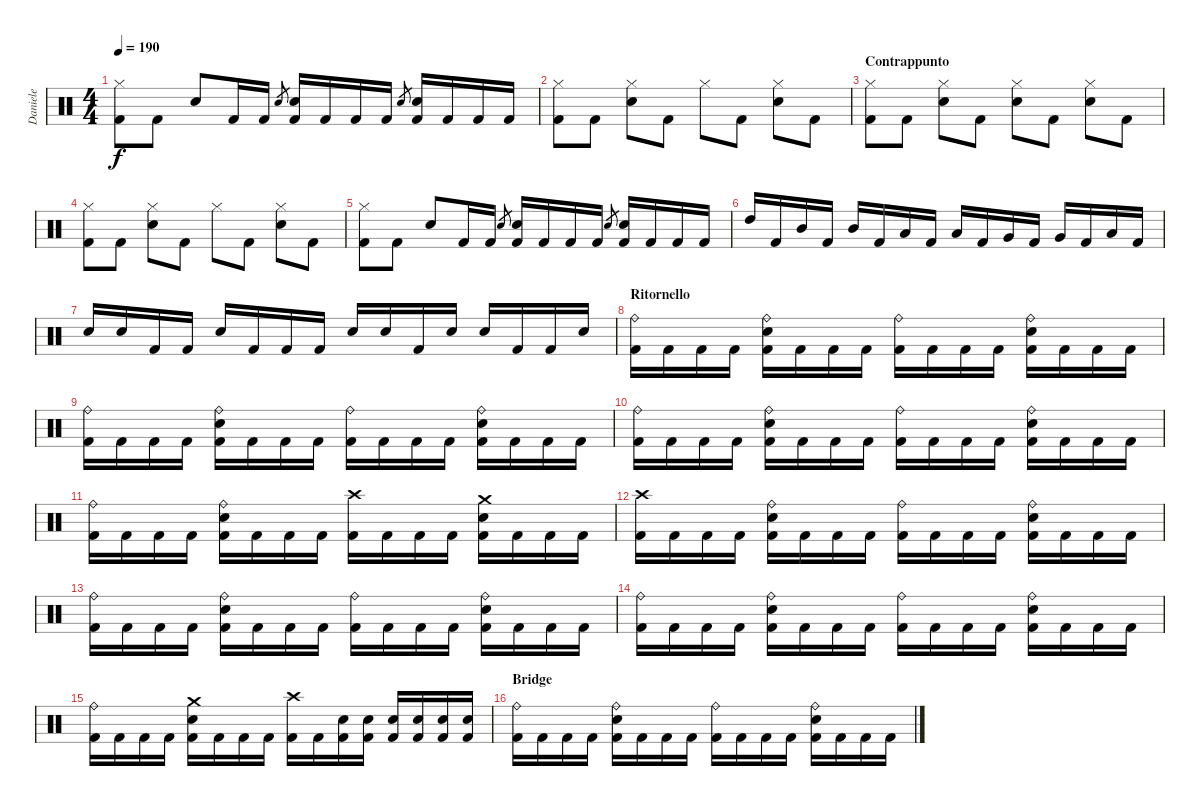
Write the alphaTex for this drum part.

\track ("Daniele" "Daniele") {instrument percussion}
\staff {score}
\articulation defaults
\ts (4 4)
\tempo 190
\clef neutral
\ks c
("Hi-Hat (closed)" "Kick (hit) 2").8{dy f} "Kick (hit) 2".8 "Electric Snare (hit)".8 "Kick (hit) 2".16 "Kick (hit) 2".16 "Electric Snare (hit)".8{gr} ("Electric Snare (hit)" "Kick (hit) 2").16 "Kick (hit) 2".16 "Kick (hit) 2".16 "Kick (hit) 2".16 "Electric Snare (hit)".8{gr} ("Electric Snare (hit)" "Kick (hit) 2").16 "Kick (hit) 2".16 "Kick (hit) 2".16 "Kick (hit) 2".16 |
("Hi-Hat (closed)" "Kick (hit) 2").8 "Kick (hit) 2".8 ("Hi-Hat (closed)" "Electric Snare (hit)").8 "Kick (hit) 2".8 "Hi-Hat (closed)".8 "Kick (hit) 2".8 ("Hi-Hat (closed)" "Electric Snare (hit)").8 "Kick (hit) 2".8 |
\section ("" "Contrappunto")
("Hi-Hat (closed)" "Kick (hit) 2").8 "Kick (hit) 2".8 ("Hi-Hat (closed)" "Electric Snare (hit)").8 "Kick (hit) 2".8 ("Hi-Hat (closed)" "Electric Snare (hit)").8 "Kick (hit) 2".8 ("Hi-Hat (closed)" "Electric Snare (hit)").8 "Kick (hit) 2".8 |
("Hi-Hat (closed)" "Kick (hit) 2").8 "Kick (hit) 2".8 ("Hi-Hat (closed)" "Electric Snare (hit)").8 "Kick (hit) 2".8 "Hi-Hat (closed)".8 "Kick (hit) 2".8 ("Hi-Hat (closed)" "Electric Snare (hit)").8 "Kick (hit) 2".8 |
("Hi-Hat (closed)" "Kick (hit) 2").8 "Kick (hit) 2".8 "Electric Snare (hit)".8 "Kick (hit) 2".16 "Kick (hit) 2".16 "Electric Snare (hit)".8{gr} ("Electric Snare (hit)" "Kick (hit) 2").16 "Kick (hit) 2".16 "Kick (hit) 2".16 "Kick (hit) 2".16 "Electric Snare (hit)".8{gr} ("Electric Snare (hit)" "Kick (hit) 2").16 "Kick (hit) 2".16 "Kick (hit) 2".16 "Kick (hit) 2".16 |
"High Tom (hit)".16 "Kick (hit) 2".16 "Mid Tom (hit)".16 "Kick (hit) 2".16 "Mid Tom (hit)".16 "Kick (hit) 2".16 "Low Tom (hit)".16 "Kick (hit) 2".16 "Low Tom (hit)".16 "Kick (hit) 2".16 "Very Low Tom (hit)".16 "Kick (hit) 2".16 "Very Low Tom (hit)".16 "Kick (hit) 2".16 "Low Floor Tom (hit)".16 "Kick (hit) 2".16 |
"Electric Snare (hit)".16 "Electric Snare (hit)".16 "Kick (hit) 2".16 "Kick (hit) 2".16 "Electric Snare (hit)".16 "Kick (hit) 2".16 "Kick (hit) 2".16 "Kick (hit) 2".16 "Electric Snare (hit)".16 "Electric Snare (hit)".16 "Kick (hit) 2".16 "Electric Snare (hit)".16 "Electric Snare (hit)".16 "Kick (hit) 2".16 "Kick (hit) 2".16 "Electric Snare (hit)".16 |
\section ("" "Ritornello")
("Ride (bell)" "Kick (hit) 2").16 "Kick (hit) 2".16 "Kick (hit) 2".16 "Kick (hit) 2".16 ("Ride (bell)" "Electric Snare (hit)" "Kick (hit) 2").16 "Kick (hit) 2".16 "Kick (hit) 2".16 "Kick (hit) 2".16 ("Ride (bell)" "Kick (hit) 2").16 "Kick (hit) 2".16 "Kick (hit) 2".16 "Kick (hit) 2".16 ("Ride (bell)" "Electric Snare (hit)" "Kick (hit) 2").16 "Kick (hit) 2".16 "Kick (hit) 2".16 "Kick (hit) 2".16 |
("Ride (bell)" "Kick (hit) 2").16 "Kick (hit) 2".16 "Kick (hit) 2".16 "Kick (hit) 2".16 ("Ride (bell)" "Electric Snare (hit)" "Kick (hit) 2").16 "Kick (hit) 2".16 "Kick (hit) 2".16 "Kick (hit) 2".16 ("Ride (bell)" "Kick (hit) 2").16 "Kick (hit) 2".16 "Kick (hit) 2".16 "Kick (hit) 2".16 ("Ride (bell)" "Electric Snare (hit)" "Kick (hit) 2").16 "Kick (hit) 2".16 "Kick (hit) 2".16 "Kick (hit) 2".16 |
("Ride (bell)" "Kick (hit) 2").16 "Kick (hit) 2".16 "Kick (hit) 2".16 "Kick (hit) 2".16 ("Ride (bell)" "Electric Snare (hit)" "Kick (hit) 2").16 "Kick (hit) 2".16 "Kick (hit) 2".16 "Kick (hit) 2".16 ("Ride (bell)" "Kick (hit) 2").16 "Kick (hit) 2".16 "Kick (hit) 2".16 "Kick (hit) 2".16 ("Ride (bell)" "Electric Snare (hit)" "Kick (hit) 2").16 "Kick (hit) 2".16 "Kick (hit) 2".16 "Kick (hit) 2".16 |
("Ride (bell)" "Kick (hit) 2").16 "Kick (hit) 2".16 "Kick (hit) 2".16 "Kick (hit) 2".16 ("Ride (bell)" "Electric Snare (hit)" "Kick (hit) 2").16 "Kick (hit) 2".16 "Kick (hit) 2".16 "Kick (hit) 2".16 ("Crash high (hit)" "Kick (hit) 2").16 "Kick (hit) 2".16 "Kick (hit) 2".16 "Kick (hit) 2".16 ("Crash medium (hit)" "Electric Snare (hit)" "Kick (hit) 2").16 "Kick (hit) 2".16 "Kick (hit) 2".16 "Kick (hit) 2".16 |
("Crash high (hit)" "Kick (hit) 2").16 "Kick (hit) 2".16 "Kick (hit) 2".16 "Kick (hit) 2".16 ("Ride (bell)" "Electric Snare (hit)" "Kick (hit) 2").16 "Kick (hit) 2".16 "Kick (hit) 2".16 "Kick (hit) 2".16 ("Ride (bell)" "Kick (hit) 2").16 "Kick (hit) 2".16 "Kick (hit) 2".16 "Kick (hit) 2".16 ("Ride (bell)" "Electric Snare (hit)" "Kick (hit) 2").16 "Kick (hit) 2".16 "Kick (hit) 2".16 "Kick (hit) 2".16 |
("Ride (bell)" "Kick (hit) 2").16 "Kick (hit) 2".16 "Kick (hit) 2".16 "Kick (hit) 2".16 ("Ride (bell)" "Electric Snare (hit)" "Kick (hit) 2").16 "Kick (hit) 2".16 "Kick (hit) 2".16 "Kick (hit) 2".16 ("Ride (bell)" "Kick (hit) 2").16 "Kick (hit) 2".16 "Kick (hit) 2".16 "Kick (hit) 2".16 ("Ride (bell)" "Electric Snare (hit)" "Kick (hit) 2").16 "Kick (hit) 2".16 "Kick (hit) 2".16 "Kick (hit) 2".16 |
("Ride (bell)" "Kick (hit) 2").16 "Kick (hit) 2".16 "Kick (hit) 2".16 "Kick (hit) 2".16 ("Ride (bell)" "Electric Snare (hit)" "Kick (hit) 2").16 "Kick (hit) 2".16 "Kick (hit) 2".16 "Kick (hit) 2".16 ("Ride (bell)" "Kick (hit) 2").16 "Kick (hit) 2".16 "Kick (hit) 2".16 "Kick (hit) 2".16 ("Ride (bell)" "Electric Snare (hit)" "Kick (hit) 2").16 "Kick (hit) 2".16 "Kick (hit) 2".16 "Kick (hit) 2".16 |
("Ride (bell)" "Kick (hit) 2").16 "Kick (hit) 2".16 "Kick (hit) 2".16 "Kick (hit) 2".16 ("Crash medium (hit)" "Electric Snare (hit)" "Kick (hit) 2").16 "Kick (hit) 2".16 "Kick (hit) 2".16 "Kick (hit) 2".16 ("Crash high (hit)" "Kick (hit) 2").16 "Kick (hit) 2".16 ("Electric Snare (hit)" "Kick (hit) 2").16 ("Electric Snare (hit)" "Kick (hit) 2").16 ("Electric Snare (hit)" "Kick (hit) 2").16 ("Electric Snare (hit)" "Kick (hit) 2").16 ("Electric Snare (hit)" "Kick (hit) 2").16 ("Electric Snare (hit)" "Kick (hit) 2").16 |
\section ("" "Bridge")
("Ride (bell)" "Kick (hit) 2").16 "Kick (hit) 2".16 "Kick (hit) 2".16 "Kick (hit) 2".16 ("Ride (bell)" "Electric Snare (hit)" "Kick (hit) 2").16 "Kick (hit) 2".16 "Kick (hit) 2".16 "Kick (hit) 2".16 ("Ride (bell)" "Kick (hit) 2").16 "Kick (hit) 2".16 "Kick (hit) 2".16 "Kick (hit) 2".16 ("Ride (bell)" "Electric Snare (hit)" "Kick (hit) 2").16 "Kick (hit) 2".16 "Kick (hit) 2".16 "Kick (hit) 2".16
